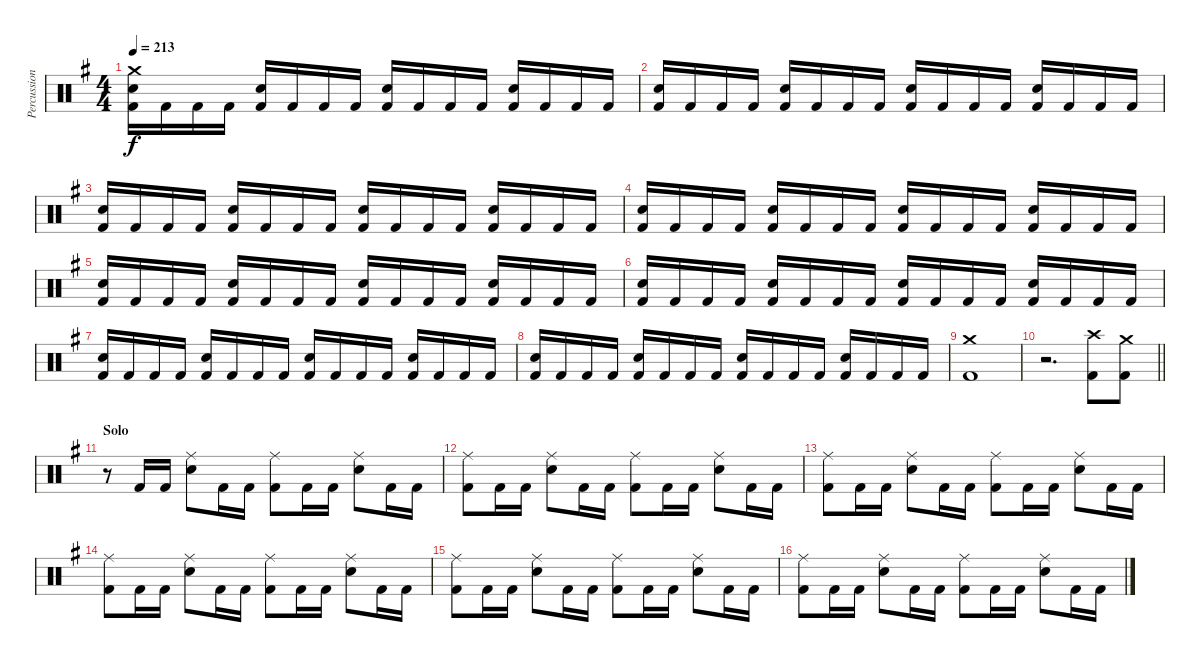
\track ("Percussion" "Percussion") {instrument percussion}
\staff {score}
\articulation defaults
\ts (4 4)
\tempo 213
\clef neutral
\ks eminor
("Crash medium (hit)" "Snare (hit) 2" "Kick (hit) 2").16{dy f} "Kick (hit) 2".16 "Kick (hit) 2".16 "Kick (hit) 2".16 ("Snare (hit) 2" "Kick (hit) 2").16 "Kick (hit) 2".16 "Kick (hit) 2".16 "Kick (hit) 2".16 ("Snare (hit) 2" "Kick (hit) 2").16 "Kick (hit) 2".16 "Kick (hit) 2".16 "Kick (hit) 2".16 ("Snare (hit) 2" "Kick (hit) 2").16 "Kick (hit) 2".16 "Kick (hit) 2".16 "Kick (hit) 2".16 |
("Snare (hit) 2" "Kick (hit) 2").16 "Kick (hit) 2".16 "Kick (hit) 2".16 "Kick (hit) 2".16 ("Snare (hit) 2" "Kick (hit) 2").16 "Kick (hit) 2".16 "Kick (hit) 2".16 "Kick (hit) 2".16 ("Snare (hit) 2" "Kick (hit) 2").16 "Kick (hit) 2".16 "Kick (hit) 2".16 "Kick (hit) 2".16 ("Snare (hit) 2" "Kick (hit) 2").16 "Kick (hit) 2".16 "Kick (hit) 2".16 "Kick (hit) 2".16 |
("Snare (hit) 2" "Kick (hit) 2").16 "Kick (hit) 2".16 "Kick (hit) 2".16 "Kick (hit) 2".16 ("Snare (hit) 2" "Kick (hit) 2").16 "Kick (hit) 2".16 "Kick (hit) 2".16 "Kick (hit) 2".16 ("Snare (hit) 2" "Kick (hit) 2").16 "Kick (hit) 2".16 "Kick (hit) 2".16 "Kick (hit) 2".16 ("Snare (hit) 2" "Kick (hit) 2").16 "Kick (hit) 2".16 "Kick (hit) 2".16 "Kick (hit) 2".16 |
("Snare (hit) 2" "Kick (hit) 2").16 "Kick (hit) 2".16 "Kick (hit) 2".16 "Kick (hit) 2".16 ("Snare (hit) 2" "Kick (hit) 2").16 "Kick (hit) 2".16 "Kick (hit) 2".16 "Kick (hit) 2".16 ("Snare (hit) 2" "Kick (hit) 2").16 "Kick (hit) 2".16 "Kick (hit) 2".16 "Kick (hit) 2".16 ("Snare (hit) 2" "Kick (hit) 2").16 "Kick (hit) 2".16 "Kick (hit) 2".16 "Kick (hit) 2".16 |
("Snare (hit) 2" "Kick (hit) 2").16 "Kick (hit) 2".16 "Kick (hit) 2".16 "Kick (hit) 2".16 ("Snare (hit) 2" "Kick (hit) 2").16 "Kick (hit) 2".16 "Kick (hit) 2".16 "Kick (hit) 2".16 ("Snare (hit) 2" "Kick (hit) 2").16 "Kick (hit) 2".16 "Kick (hit) 2".16 "Kick (hit) 2".16 ("Snare (hit) 2" "Kick (hit) 2").16 "Kick (hit) 2".16 "Kick (hit) 2".16 "Kick (hit) 2".16 |
("Snare (hit) 2" "Kick (hit) 2").16 "Kick (hit) 2".16 "Kick (hit) 2".16 "Kick (hit) 2".16 ("Snare (hit) 2" "Kick (hit) 2").16 "Kick (hit) 2".16 "Kick (hit) 2".16 "Kick (hit) 2".16 ("Snare (hit) 2" "Kick (hit) 2").16 "Kick (hit) 2".16 "Kick (hit) 2".16 "Kick (hit) 2".16 ("Snare (hit) 2" "Kick (hit) 2").16 "Kick (hit) 2".16 "Kick (hit) 2".16 "Kick (hit) 2".16 |
("Snare (hit) 2" "Kick (hit) 2").16 "Kick (hit) 2".16 "Kick (hit) 2".16 "Kick (hit) 2".16 ("Snare (hit) 2" "Kick (hit) 2").16 "Kick (hit) 2".16 "Kick (hit) 2".16 "Kick (hit) 2".16 ("Snare (hit) 2" "Kick (hit) 2").16 "Kick (hit) 2".16 "Kick (hit) 2".16 "Kick (hit) 2".16 ("Snare (hit) 2" "Kick (hit) 2").16 "Kick (hit) 2".16 "Kick (hit) 2".16 "Kick (hit) 2".16 |
("Snare (hit) 2" "Kick (hit) 2").16 "Kick (hit) 2".16 "Kick (hit) 2".16 "Kick (hit) 2".16 ("Snare (hit) 2" "Kick (hit) 2").16 "Kick (hit) 2".16 "Kick (hit) 2".16 "Kick (hit) 2".16 ("Snare (hit) 2" "Kick (hit) 2").16 "Kick (hit) 2".16 "Kick (hit) 2".16 "Kick (hit) 2".16 ("Snare (hit) 2" "Kick (hit) 2").16 "Kick (hit) 2".16 "Kick (hit) 2".16 "Kick (hit) 2".16 |
("Crash medium (hit)" "Kick (hit) 2").1 |
\barLineRight lightlight
r.2{d} ("Crash high (hit)" "Kick (hit) 2").8 ("Crash medium (hit)" "Kick (hit) 2").8 |
\section ("" "Solo")
r.8 "Kick (hit) 2".16 "Kick (hit) 2".16 ("Ride (middle)" "Snare (hit) 2").8 "Kick (hit) 2".16 "Kick (hit) 2".16 ("Ride (middle)" "Kick (hit) 2").8 "Kick (hit) 2".16 "Kick (hit) 2".16 ("Ride (middle)" "Snare (hit) 2").8 "Kick (hit) 2".16 "Kick (hit) 2".16 |
("Ride (middle)" "Kick (hit) 2").8 "Kick (hit) 2".16 "Kick (hit) 2".16 ("Ride (middle)" "Snare (hit) 2").8 "Kick (hit) 2".16 "Kick (hit) 2".16 ("Ride (middle)" "Kick (hit) 2").8 "Kick (hit) 2".16 "Kick (hit) 2".16 ("Ride (middle)" "Snare (hit) 2").8 "Kick (hit) 2".16 "Kick (hit) 2".16 |
("Ride (middle)" "Kick (hit) 2").8 "Kick (hit) 2".16 "Kick (hit) 2".16 ("Ride (middle)" "Snare (hit) 2").8 "Kick (hit) 2".16 "Kick (hit) 2".16 ("Ride (middle)" "Kick (hit) 2").8 "Kick (hit) 2".16 "Kick (hit) 2".16 ("Ride (middle)" "Snare (hit) 2").8 "Kick (hit) 2".16 "Kick (hit) 2".16 |
("Ride (middle)" "Kick (hit) 2").8 "Kick (hit) 2".16 "Kick (hit) 2".16 ("Ride (middle)" "Snare (hit) 2").8 "Kick (hit) 2".16 "Kick (hit) 2".16 ("Ride (middle)" "Kick (hit) 2").8 "Kick (hit) 2".16 "Kick (hit) 2".16 ("Ride (middle)" "Snare (hit) 2").8 "Kick (hit) 2".16 "Kick (hit) 2".16 |
("Ride (middle)" "Kick (hit) 2").8 "Kick (hit) 2".16 "Kick (hit) 2".16 ("Ride (middle)" "Snare (hit) 2").8 "Kick (hit) 2".16 "Kick (hit) 2".16 ("Ride (middle)" "Kick (hit) 2").8 "Kick (hit) 2".16 "Kick (hit) 2".16 ("Ride (middle)" "Snare (hit) 2").8 "Kick (hit) 2".16 "Kick (hit) 2".16 |
("Ride (middle)" "Kick (hit) 2").8 "Kick (hit) 2".16 "Kick (hit) 2".16 ("Ride (middle)" "Snare (hit) 2").8 "Kick (hit) 2".16 "Kick (hit) 2".16 ("Ride (middle)" "Kick (hit) 2").8 "Kick (hit) 2".16 "Kick (hit) 2".16 ("Ride (middle)" "Snare (hit) 2").8 "Kick (hit) 2".16 "Kick (hit) 2".16
